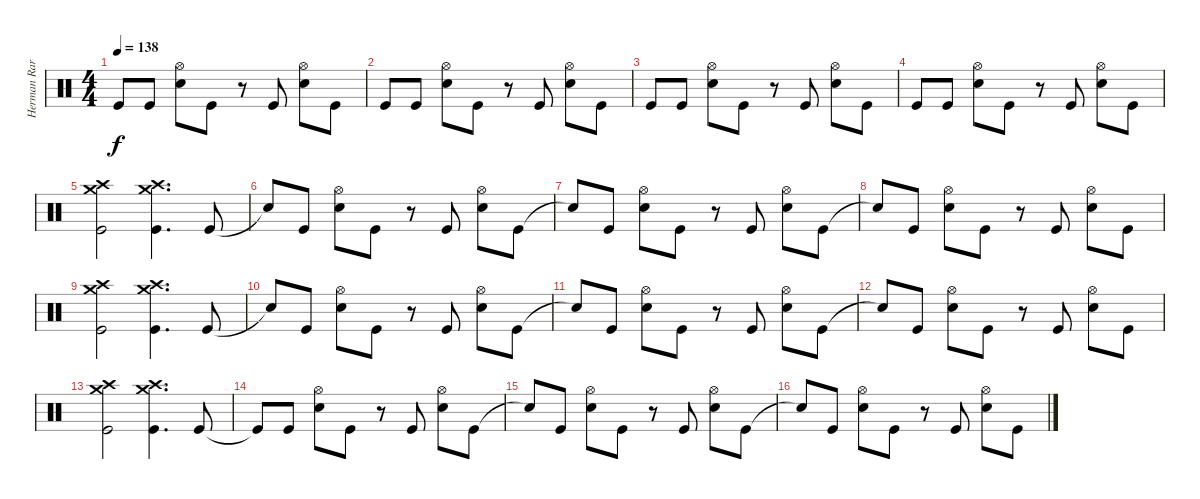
\track ("Herman Rarebell Drums" "Herman Rar") {instrument percussion}
\staff {score}
\articulation defaults
\ts (4 4)
\tempo 138
\clef neutral
\ks c "Kick (hit)".8{dy f} "Kick (hit)".8
("Hi-Hat (open)" "Snare (hit) 2").8 "Kick (hit)".8 r.8 "Kick (hit)".8 ("Hi-Hat (open)" "Snare (hit) 2").8 "Kick (hit)".8 |
"Kick (hit)".8 "Kick (hit)".8 ("Hi-Hat (open)" "Snare (hit) 2").8 "Kick (hit)".8 r.8 "Kick (hit)".8 ("Hi-Hat (open)" "Snare (hit) 2").8 "Kick (hit)".8 |
"Kick (hit)".8 "Kick (hit)".8 ("Hi-Hat (open)" "Snare (hit) 2").8 "Kick (hit)".8 r.8 "Kick (hit)".8 ("Hi-Hat (open)" "Snare (hit) 2").8 "Kick (hit)".8 |
"Kick (hit)".8 "Kick (hit)".8 ("Hi-Hat (open)" "Snare (hit) 2").8 "Kick (hit)".8 r.8 "Kick (hit)".8 ("Hi-Hat (open)" "Snare (hit) 2").8 "Kick (hit)".8 |
("Crash high (hit)" "Crash medium (hit)" "Kick (hit)").2 ("Crash high (hit)" "Crash medium (hit)" "Kick (hit)").4{d} "Kick (hit)".8 |
"Snare (hit)"{t}.8 "Kick (hit)".8 ("Hi-Hat (open)" "Snare (hit) 2").8 "Kick (hit)".8 r.8 "Kick (hit)".8 ("Hi-Hat (open)" "Snare (hit) 2").8 "Kick (hit)".8 |
"Snare (hit)"{t}.8 "Kick (hit)".8 ("Hi-Hat (open)" "Snare (hit) 2").8 "Kick (hit)".8 r.8 "Kick (hit)".8 ("Hi-Hat (open)" "Snare (hit) 2").8 "Kick (hit)".8 |
"Snare (hit)"{t}.8 "Kick (hit)".8 ("Hi-Hat (open)" "Snare (hit) 2").8 "Kick (hit)".8 r.8 "Kick (hit)".8 ("Hi-Hat (open)" "Snare (hit) 2").8 "Kick (hit)".8 |
("Crash high (hit)" "Crash medium (hit)" "Kick (hit)").2 ("Crash high (hit)" "Crash medium (hit)" "Kick (hit)").4{d} "Kick (hit)".8 |
"Snare (hit)"{t}.8 "Kick (hit)".8 ("Hi-Hat (open)" "Snare (hit) 2").8 "Kick (hit)".8 r.8 "Kick (hit)".8 ("Hi-Hat (open)" "Snare (hit) 2").8 "Kick (hit)".8 |
"Snare (hit)"{t}.8 "Kick (hit)".8 ("Hi-Hat (open)" "Snare (hit) 2").8 "Kick (hit)".8 r.8 "Kick (hit)".8 ("Hi-Hat (open)" "Snare (hit) 2").8 "Kick (hit)".8 |
"Snare (hit)"{t}.8 "Kick (hit)".8 ("Hi-Hat (open)" "Snare (hit) 2").8 "Kick (hit)".8 r.8 "Kick (hit)".8 ("Hi-Hat (open)" "Snare (hit) 2").8 "Kick (hit)".8 |
("Crash high (hit)" "Crash medium (hit)" "Kick (hit)").2 ("Crash high (hit)" "Crash medium (hit)" "Kick (hit)").4{d} "Kick (hit)".8 |
"Kick (hit)"{t}.8 "Kick (hit)".8 ("Hi-Hat (open)" "Snare (hit) 2").8 "Kick (hit)".8 r.8 "Kick (hit)".8 ("Hi-Hat (open)" "Snare (hit) 2").8 "Kick (hit)".8 |
"Snare (hit)"{t}.8 "Kick (hit)".8 ("Hi-Hat (open)" "Snare (hit) 2").8 "Kick (hit)".8 r.8 "Kick (hit)".8 ("Hi-Hat (open)" "Snare (hit) 2").8 "Kick (hit)".8 |
"Snare (hit)"{t}.8 "Kick (hit)".8 ("Hi-Hat (open)" "Snare (hit) 2").8 "Kick (hit)".8 r.8 "Kick (hit)".8 ("Hi-Hat (open)" "Snare (hit) 2").8 "Kick (hit)".8
